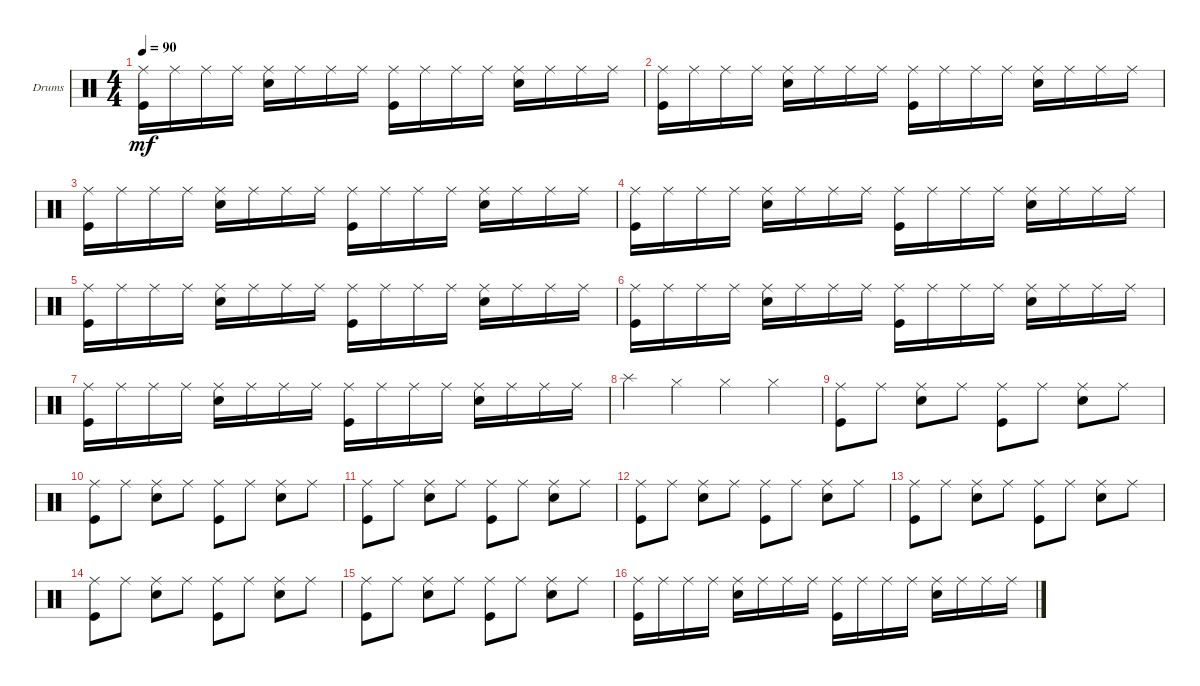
\defaultSystemsLayout 4
\bracketExtendMode groupsimilarinstruments
\firstSystemTrackNameOrientation horizontal
\otherSystemsTrackNameOrientation horizontal
\track ("Drumkit" "Drums") {instrument percussion}
\staff {score}
\articulation defaults
\ts (4 4)
\tempo 90
\clef neutral
\ks c
("Ride (middle)" "Kick (hit)").16{dy mf} "Ride (middle)".16 "Ride (middle)".16 "Ride (middle)".16 ("Ride (middle)" "Snare (hit) 2").16 "Ride (middle)".16 "Ride (middle)".16 "Ride (middle)".16 ("Ride (middle)" "Kick (hit)").16 "Ride (middle)".16 "Ride (middle)".16 "Ride (middle)".16 ("Ride (middle)" "Snare (hit) 2").16 "Ride (middle)".16 "Ride (middle)".16 "Ride (middle)".16 |
("Ride (middle)" "Kick (hit)").16 "Ride (middle)".16 "Ride (middle)".16 "Ride (middle)".16 ("Ride (middle)" "Snare (hit) 2").16 "Ride (middle)".16 "Ride (middle)".16 "Ride (middle)".16 ("Ride (middle)" "Kick (hit)").16 "Ride (middle)".16 "Ride (middle)".16 "Ride (middle)".16 ("Ride (middle)" "Snare (hit) 2").16 "Ride (middle)".16 "Ride (middle)".16 "Ride (middle)".16 |
("Ride (middle)" "Kick (hit)").16 "Ride (middle)".16 "Ride (middle)".16 "Ride (middle)".16 ("Ride (middle)" "Snare (hit) 2").16 "Ride (middle)".16 "Ride (middle)".16 "Ride (middle)".16 ("Ride (middle)" "Kick (hit)").16 "Ride (middle)".16 "Ride (middle)".16 "Ride (middle)".16 ("Ride (middle)" "Snare (hit) 2").16 "Ride (middle)".16 "Ride (middle)".16 "Ride (middle)".16 |
("Ride (middle)" "Kick (hit)").16 "Ride (middle)".16 "Ride (middle)".16 "Ride (middle)".16 ("Ride (middle)" "Snare (hit) 2").16 "Ride (middle)".16 "Ride (middle)".16 "Ride (middle)".16 ("Ride (middle)" "Kick (hit)").16 "Ride (middle)".16 "Ride (middle)".16 "Ride (middle)".16 ("Ride (middle)" "Snare (hit) 2").16 "Ride (middle)".16 "Ride (middle)".16 "Ride (middle)".16 |
("Ride (middle)" "Kick (hit)").16 "Ride (middle)".16 "Ride (middle)".16 "Ride (middle)".16 ("Ride (middle)" "Snare (hit) 2").16 "Ride (middle)".16 "Ride (middle)".16 "Ride (middle)".16 ("Ride (middle)" "Kick (hit)").16 "Ride (middle)".16 "Ride (middle)".16 "Ride (middle)".16 ("Ride (middle)" "Snare (hit) 2").16 "Ride (middle)".16 "Ride (middle)".16 "Ride (middle)".16 |
("Ride (middle)" "Kick (hit)").16 "Ride (middle)".16 "Ride (middle)".16 "Ride (middle)".16 ("Ride (middle)" "Snare (hit) 2").16 "Ride (middle)".16 "Ride (middle)".16 "Ride (middle)".16 ("Ride (middle)" "Kick (hit)").16 "Ride (middle)".16 "Ride (middle)".16 "Ride (middle)".16 ("Ride (middle)" "Snare (hit) 2").16 "Ride (middle)".16 "Ride (middle)".16 "Ride (middle)".16 |
("Ride (middle)" "Kick (hit)").16 "Ride (middle)".16 "Ride (middle)".16 "Ride (middle)".16 ("Ride (middle)" "Snare (hit) 2").16 "Ride (middle)".16 "Ride (middle)".16 "Ride (middle)".16 ("Ride (middle)" "Kick (hit)").16 "Ride (middle)".16 "Ride (middle)".16 "Ride (middle)".16 ("Ride (middle)" "Snare (hit) 2").16 "Ride (middle)".16 "Ride (middle)".16 "Ride (middle)".16 |
"Splash (hit)".4 "Hi-Hat (closed)".4 "Hi-Hat (closed)".4 "Hi-Hat (closed)".4 |
("Ride (middle)" "Kick (hit)").8 "Ride (middle)".8 ("Ride (middle)" "Snare (hit) 2").8 "Ride (middle)".8 ("Ride (middle)" "Kick (hit)").8 "Ride (middle)".8 ("Ride (middle)" "Snare (hit) 2").8 "Ride (middle)".8 |
("Ride (middle)" "Kick (hit)").8 "Ride (middle)".8 ("Ride (middle)" "Snare (hit) 2").8 "Ride (middle)".8 ("Ride (middle)" "Kick (hit)").8 "Ride (middle)".8 ("Ride (middle)" "Snare (hit) 2").8 "Ride (middle)".8 |
("Ride (middle)" "Kick (hit)").8 "Ride (middle)".8 ("Ride (middle)" "Snare (hit) 2").8 "Ride (middle)".8 ("Ride (middle)" "Kick (hit)").8 "Ride (middle)".8 ("Ride (middle)" "Snare (hit) 2").8 "Ride (middle)".8 |
("Ride (middle)" "Kick (hit)").8 "Ride (middle)".8 ("Ride (middle)" "Snare (hit) 2").8 "Ride (middle)".8 ("Ride (middle)" "Kick (hit)").8 "Ride (middle)".8 ("Ride (middle)" "Snare (hit) 2").8 "Ride (middle)".8 |
("Ride (middle)" "Kick (hit)").8 "Ride (middle)".8 ("Ride (middle)" "Snare (hit) 2").8 "Ride (middle)".8 ("Ride (middle)" "Kick (hit)").8 "Ride (middle)".8 ("Ride (middle)" "Snare (hit) 2").8 "Ride (middle)".8 |
("Ride (middle)" "Kick (hit)").8 "Ride (middle)".8 ("Ride (middle)" "Snare (hit) 2").8 "Ride (middle)".8 ("Ride (middle)" "Kick (hit)").8 "Ride (middle)".8 ("Ride (middle)" "Snare (hit) 2").8 "Ride (middle)".8 |
("Ride (middle)" "Kick (hit)").8 "Ride (middle)".8 ("Ride (middle)" "Snare (hit) 2").8 "Ride (middle)".8 ("Ride (middle)" "Kick (hit)").8 "Ride (middle)".8 ("Ride (middle)" "Snare (hit) 2").8 "Ride (middle)".8 |
("Ride (middle)" "Kick (hit)").16 "Ride (middle)".16 "Ride (middle)".16 "Ride (middle)".16 ("Ride (middle)" "Snare (hit) 2").16 "Ride (middle)".16 "Ride (middle)".16 "Ride (middle)".16 ("Ride (middle)" "Kick (hit)").16 "Ride (middle)".16 "Ride (middle)".16 "Ride (middle)".16 ("Ride (middle)" "Snare (hit) 2").16 "Ride (middle)".16 "Ride (middle)".16 "Ride (middle)".16
